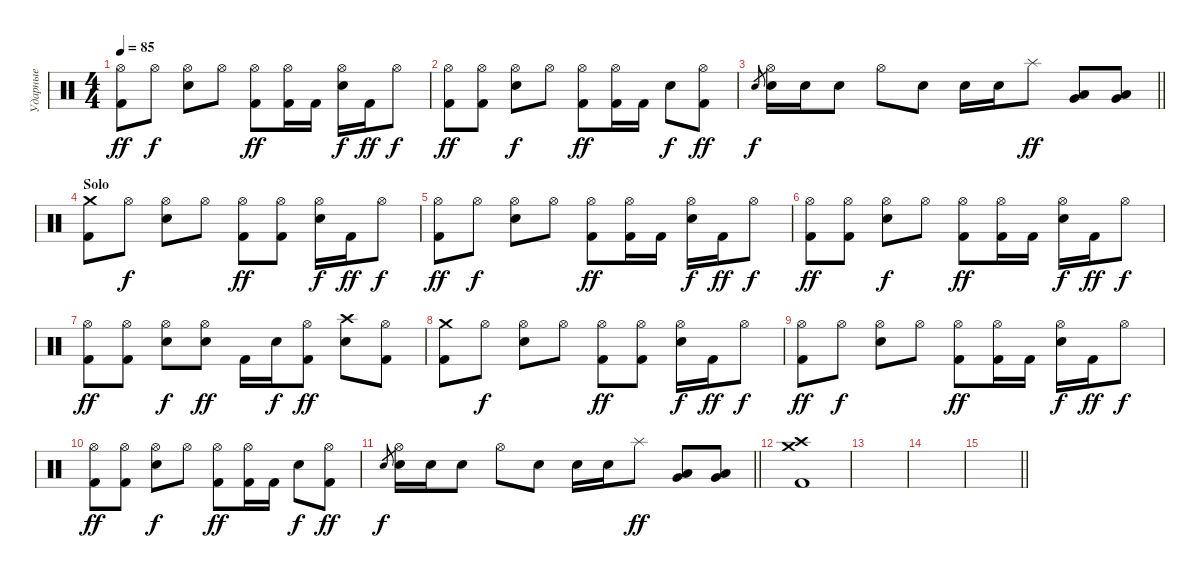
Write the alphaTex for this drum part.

\track ("Ударные" "Ударные") {instrument percussion}
\staff {score}
\articulation defaults
\ts (4 4)
\tempo 85
\clef neutral
\ks c
("Kick (hit) 2" "Hi-Hat (open)").8{dy ff} "Hi-Hat (open)".8{dy f} ("Electric Snare (hit)" "Hi-Hat (open)").8 "Hi-Hat (open)".8 ("Kick (hit) 2" "Hi-Hat (open)").8{dy ff} ("Kick (hit) 2" "Hi-Hat (open)").16 "Kick (hit) 2".16 ("Electric Snare (hit)" "Hi-Hat (open)").16{dy f} "Kick (hit) 2".16{dy ff} "Hi-Hat (open)".8{dy f} |
("Kick (hit) 2" "Hi-Hat (open)").8{dy ff} ("Kick (hit) 2" "Hi-Hat (open)").8 ("Electric Snare (hit)" "Hi-Hat (open)").8{dy f} "Hi-Hat (open)".8 ("Kick (hit) 2" "Hi-Hat (open)").8{dy ff} ("Kick (hit) 2" "Hi-Hat (open)").16 "Kick (hit) 2".16 "Electric Snare (hit)".8{dy f} ("Kick (hit) 2" "Hi-Hat (open)").8{dy ff} |
\barLineRight lightlight "Electric Snare (hit)".8{gr dy f}
("Electric Snare (hit)" "Hi-Hat (open)").16 "Electric Snare (hit)".16 "Electric Snare (hit)".8 "Hi-Hat (open)".8 "Electric Snare (hit)".8 "Electric Snare (hit)".16 "Electric Snare (hit)".16 "Splash (hit)".8{dy ff} ("Very Low Tom (hit)" "Low Tom (hit)").8 ("Very Low Tom (hit)" "Low Tom (hit)").8 |
\section ("" "Solo")
("Kick (hit) 2" "Crash medium (hit)").8 "Hi-Hat (open)".8{dy f} ("Electric Snare (hit)" "Hi-Hat (open)").8 "Hi-Hat (open)".8 ("Kick (hit) 2" "Hi-Hat (open)").8{dy ff} ("Kick (hit) 2" "Hi-Hat (open)").8 ("Electric Snare (hit)" "Hi-Hat (open)").16{dy f} "Kick (hit) 2".16{dy ff} "Hi-Hat (open)".8{dy f} |
("Kick (hit) 2" "Hi-Hat (open)").8{dy ff} "Hi-Hat (open)".8{dy f} ("Electric Snare (hit)" "Hi-Hat (open)").8 "Hi-Hat (open)".8 ("Kick (hit) 2" "Hi-Hat (open)").8{dy ff} ("Kick (hit) 2" "Hi-Hat (open)").16 "Kick (hit) 2".16 ("Electric Snare (hit)" "Hi-Hat (open)").16{dy f} "Kick (hit) 2".16{dy ff} "Hi-Hat (open)".8{dy f} |
("Kick (hit) 2" "Hi-Hat (open)").8{dy ff} ("Kick (hit) 2" "Hi-Hat (open)").8 ("Electric Snare (hit)" "Hi-Hat (open)").8{dy f} "Hi-Hat (open)".8 ("Kick (hit) 2" "Hi-Hat (open)").8{dy ff} ("Kick (hit) 2" "Hi-Hat (open)").16 "Kick (hit) 2".16 ("Electric Snare (hit)" "Hi-Hat (open)").16{dy f} "Kick (hit) 2".16{dy ff} "Hi-Hat (open)".8{dy f} |
("Kick (hit) 2" "Hi-Hat (open)").8{dy ff} ("Kick (hit) 2" "Hi-Hat (open)").8 ("Electric Snare (hit)" "Hi-Hat (open)").8{dy f} ("Electric Snare (hit)" "Hi-Hat (open)").8{dy ff} "Kick (hit) 2".16 "Electric Snare (hit)".16{dy f} ("Kick (hit) 2" "Hi-Hat (open)").8{dy ff} ("Electric Snare (hit)" "Crash high (hit)").8 ("Kick (hit) 2" "Hi-Hat (open)").8 |
("Kick (hit) 2" "Crash medium (hit)").8 "Hi-Hat (open)".8{dy f} ("Electric Snare (hit)" "Hi-Hat (open)").8 "Hi-Hat (open)".8 ("Kick (hit) 2" "Hi-Hat (open)").8{dy ff} ("Kick (hit) 2" "Hi-Hat (open)").8 ("Electric Snare (hit)" "Hi-Hat (open)").16{dy f} "Kick (hit) 2".16{dy ff} "Hi-Hat (open)".8{dy f} |
("Kick (hit) 2" "Hi-Hat (open)").8{dy ff} "Hi-Hat (open)".8{dy f} ("Electric Snare (hit)" "Hi-Hat (open)").8 "Hi-Hat (open)".8 ("Kick (hit) 2" "Hi-Hat (open)").8{dy ff} ("Kick (hit) 2" "Hi-Hat (open)").16 "Kick (hit) 2".16 ("Electric Snare (hit)" "Hi-Hat (open)").16{dy f} "Kick (hit) 2".16{dy ff} "Hi-Hat (open)".8{dy f} |
("Kick (hit) 2" "Hi-Hat (open)").8{dy ff} ("Kick (hit) 2" "Hi-Hat (open)").8 ("Electric Snare (hit)" "Hi-Hat (open)").8{dy f} "Hi-Hat (open)".8 ("Kick (hit) 2" "Hi-Hat (open)").8{dy ff} ("Kick (hit) 2" "Hi-Hat (open)").16 "Kick (hit) 2".16 "Electric Snare (hit)".8{dy f} ("Kick (hit) 2" "Hi-Hat (open)").8{dy ff} |
\barLineRight lightlight "Electric Snare (hit)".8{gr dy f}
("Electric Snare (hit)" "Hi-Hat (open)").16 "Electric Snare (hit)".16 "Electric Snare (hit)".8 "Hi-Hat (open)".8 "Electric Snare (hit)".8 "Electric Snare (hit)".16 "Electric Snare (hit)".16 "Splash (hit)".8{dy ff} ("Very Low Tom (hit)" "Low Tom (hit)").8 ("Very Low Tom (hit)" "Low Tom (hit)").8 |
("Kick (hit) 2" "Crash medium (hit)" "Crash high (hit)").1 |
|
|
\barLineRight lightlight
